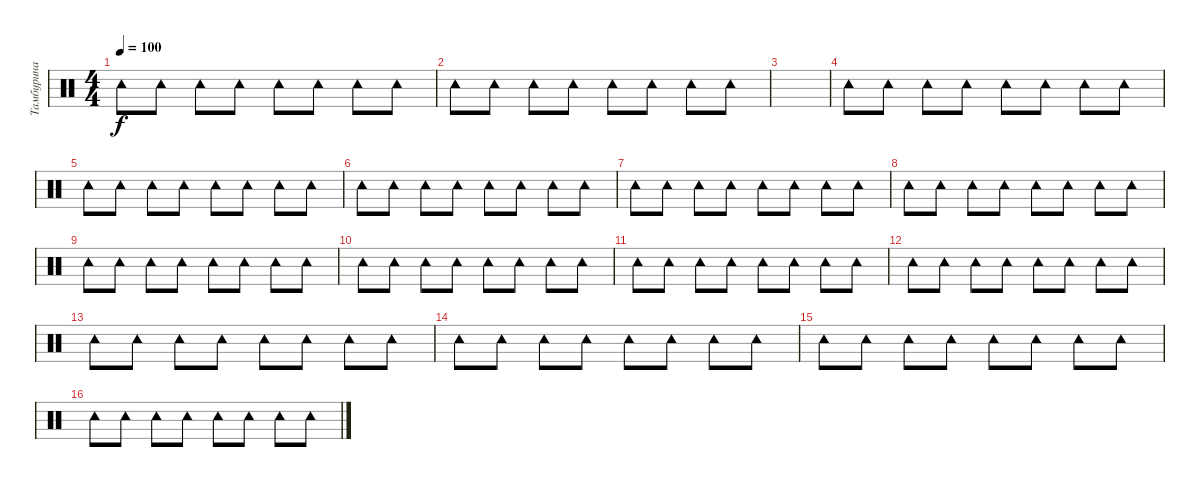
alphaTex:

\track ("Тамбурина" "Тамбурина") {instrument percussion}
\staff {score}
\articulation defaults
\ts (4 4)
\tempo 100
\clef neutral
\ks c "Tambourine (hit)".8{dy f} "Tambourine (hit)".8 "Tambourine (hit)".8 "Tambourine (hit)".8 "Tambourine (hit)".8 "Tambourine (hit)".8 "Tambourine (hit)".8 "Tambourine (hit)".8
|
"Tambourine (hit)".8 "Tambourine (hit)".8 "Tambourine (hit)".8 "Tambourine (hit)".8 "Tambourine (hit)".8 "Tambourine (hit)".8 "Tambourine (hit)".8 "Tambourine (hit)".8 |
|
"Tambourine (hit)".8 "Tambourine (hit)".8 "Tambourine (hit)".8 "Tambourine (hit)".8 "Tambourine (hit)".8 "Tambourine (hit)".8 "Tambourine (hit)".8 "Tambourine (hit)".8 |
"Tambourine (hit)".8 "Tambourine (hit)".8 "Tambourine (hit)".8 "Tambourine (hit)".8 "Tambourine (hit)".8 "Tambourine (hit)".8 "Tambourine (hit)".8 "Tambourine (hit)".8 |
"Tambourine (hit)".8 "Tambourine (hit)".8 "Tambourine (hit)".8 "Tambourine (hit)".8 "Tambourine (hit)".8 "Tambourine (hit)".8 "Tambourine (hit)".8 "Tambourine (hit)".8 |
"Tambourine (hit)".8 "Tambourine (hit)".8 "Tambourine (hit)".8 "Tambourine (hit)".8 "Tambourine (hit)".8 "Tambourine (hit)".8 "Tambourine (hit)".8 "Tambourine (hit)".8 |
"Tambourine (hit)".8 "Tambourine (hit)".8 "Tambourine (hit)".8 "Tambourine (hit)".8 "Tambourine (hit)".8 "Tambourine (hit)".8 "Tambourine (hit)".8 "Tambourine (hit)".8 |
"Tambourine (hit)".8 "Tambourine (hit)".8 "Tambourine (hit)".8 "Tambourine (hit)".8 "Tambourine (hit)".8 "Tambourine (hit)".8 "Tambourine (hit)".8 "Tambourine (hit)".8 |
"Tambourine (hit)".8 "Tambourine (hit)".8 "Tambourine (hit)".8 "Tambourine (hit)".8 "Tambourine (hit)".8 "Tambourine (hit)".8 "Tambourine (hit)".8 "Tambourine (hit)".8 |
"Tambourine (hit)".8 "Tambourine (hit)".8 "Tambourine (hit)".8 "Tambourine (hit)".8 "Tambourine (hit)".8 "Tambourine (hit)".8 "Tambourine (hit)".8 "Tambourine (hit)".8 |
"Tambourine (hit)".8 "Tambourine (hit)".8 "Tambourine (hit)".8 "Tambourine (hit)".8 "Tambourine (hit)".8 "Tambourine (hit)".8 "Tambourine (hit)".8 "Tambourine (hit)".8 |
"Tambourine (hit)".8 "Tambourine (hit)".8 "Tambourine (hit)".8 "Tambourine (hit)".8 "Tambourine (hit)".8 "Tambourine (hit)".8 "Tambourine (hit)".8 "Tambourine (hit)".8 |
"Tambourine (hit)".8 "Tambourine (hit)".8 "Tambourine (hit)".8 "Tambourine (hit)".8 "Tambourine (hit)".8 "Tambourine (hit)".8 "Tambourine (hit)".8 "Tambourine (hit)".8 |
"Tambourine (hit)".8 "Tambourine (hit)".8 "Tambourine (hit)".8 "Tambourine (hit)".8 "Tambourine (hit)".8 "Tambourine (hit)".8 "Tambourine (hit)".8 "Tambourine (hit)".8 |
"Tambourine (hit)".8 "Tambourine (hit)".8 "Tambourine (hit)".8 "Tambourine (hit)".8 "Tambourine (hit)".8 "Tambourine (hit)".8 "Tambourine (hit)".8 "Tambourine (hit)".8
